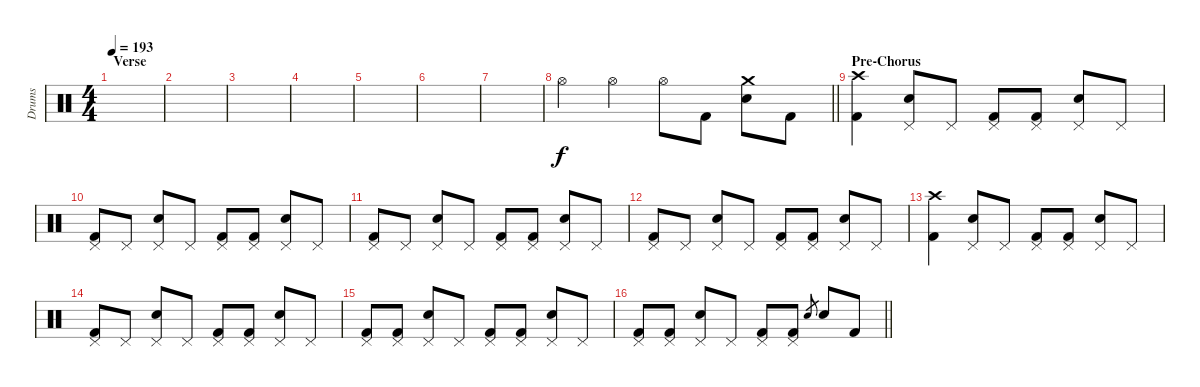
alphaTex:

\track ("Drums" "Drums") {instrument percussion}
\staff {score}
\articulation defaults
\ts (4 4)
\section ("" "Verse")
\tempo 193
\clef neutral
\ks c
|
|
|
|
|
|
|
\barLineRight lightlight "Hi-Hat (open)".4 "Hi-Hat (open)".4 "Hi-Hat (open)".8 "Kick (hit) 2".8
("Crash medium (hit)" "Electric Snare (hit)").8 "Kick (hit) 2".8 |
\section ("" "Pre-Chorus")
("Crash high (hit)" "Kick (hit) 2").4 ("Pedal Hi-Hat (hit)" "Electric Snare (hit)").8 "Pedal Hi-Hat (hit)".8 ("Pedal Hi-Hat (hit)" "Kick (hit) 2").8 ("Pedal Hi-Hat (hit)" "Kick (hit) 2").8 ("Pedal Hi-Hat (hit)" "Electric Snare (hit)").8 "Pedal Hi-Hat (hit)".8 |
("Pedal Hi-Hat (hit)" "Kick (hit) 2").8 "Pedal Hi-Hat (hit)".8 ("Pedal Hi-Hat (hit)" "Electric Snare (hit)").8 "Pedal Hi-Hat (hit)".8 ("Pedal Hi-Hat (hit)" "Kick (hit) 2").8 ("Pedal Hi-Hat (hit)" "Kick (hit) 2").8 ("Pedal Hi-Hat (hit)" "Electric Snare (hit)").8 "Pedal Hi-Hat (hit)".8 |
("Pedal Hi-Hat (hit)" "Kick (hit) 2").8 "Pedal Hi-Hat (hit)".8 ("Pedal Hi-Hat (hit)" "Electric Snare (hit)").8 "Pedal Hi-Hat (hit)".8 ("Pedal Hi-Hat (hit)" "Kick (hit) 2").8 ("Pedal Hi-Hat (hit)" "Kick (hit) 2").8 ("Pedal Hi-Hat (hit)" "Electric Snare (hit)").8 "Pedal Hi-Hat (hit)".8 |
("Pedal Hi-Hat (hit)" "Kick (hit) 2").8 "Pedal Hi-Hat (hit)".8 ("Pedal Hi-Hat (hit)" "Electric Snare (hit)").8 "Pedal Hi-Hat (hit)".8 ("Pedal Hi-Hat (hit)" "Kick (hit) 2").8 ("Pedal Hi-Hat (hit)" "Kick (hit) 2").8 ("Pedal Hi-Hat (hit)" "Electric Snare (hit)").8 "Pedal Hi-Hat (hit)".8 |
("Crash high (hit)" "Kick (hit) 2").4 ("Pedal Hi-Hat (hit)" "Electric Snare (hit)").8 "Pedal Hi-Hat (hit)".8 ("Pedal Hi-Hat (hit)" "Kick (hit) 2").8 ("Pedal Hi-Hat (hit)" "Kick (hit) 2").8 ("Pedal Hi-Hat (hit)" "Electric Snare (hit)").8 "Pedal Hi-Hat (hit)".8 |
("Pedal Hi-Hat (hit)" "Kick (hit) 2").8 "Pedal Hi-Hat (hit)".8 ("Pedal Hi-Hat (hit)" "Electric Snare (hit)").8 "Pedal Hi-Hat (hit)".8 ("Pedal Hi-Hat (hit)" "Kick (hit) 2").8 ("Pedal Hi-Hat (hit)" "Kick (hit) 2").8 ("Pedal Hi-Hat (hit)" "Electric Snare (hit)").8 "Pedal Hi-Hat (hit)".8 |
("Pedal Hi-Hat (hit)" "Kick (hit) 2").8 ("Pedal Hi-Hat (hit)" "Kick (hit) 2").8 ("Pedal Hi-Hat (hit)" "Electric Snare (hit)").8 "Pedal Hi-Hat (hit)".8 ("Pedal Hi-Hat (hit)" "Kick (hit) 2").8 ("Pedal Hi-Hat (hit)" "Kick (hit) 2").8 ("Pedal Hi-Hat (hit)" "Electric Snare (hit)").8 "Pedal Hi-Hat (hit)".8 |
\barLineRight lightlight
("Pedal Hi-Hat (hit)" "Kick (hit) 2").8 ("Pedal Hi-Hat (hit)" "Kick (hit) 2").8 ("Pedal Hi-Hat (hit)" "Electric Snare (hit)").8 "Pedal Hi-Hat (hit)".8 ("Pedal Hi-Hat (hit)" "Kick (hit) 2").8 ("Pedal Hi-Hat (hit)" "Kick (hit) 2").8 "Electric Snare (hit)".8{gr} "Electric Snare (hit)".8 "Kick (hit) 2".8
